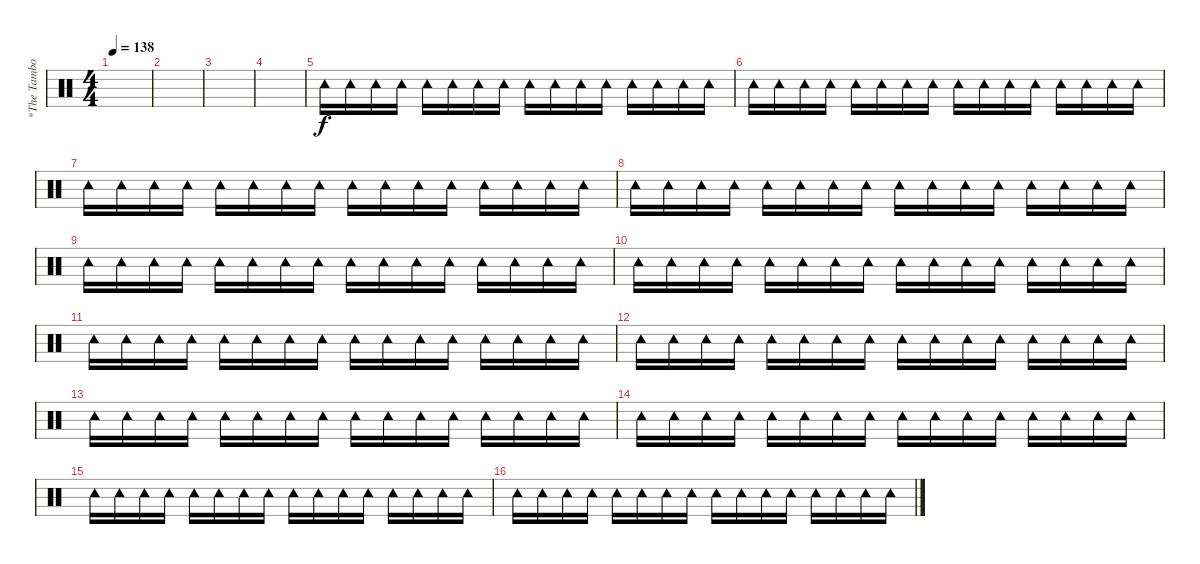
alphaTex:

\track ("*The Tambourine" "*The Tambo") {instrument percussion}
\staff {score}
\articulation defaults
\ts (4 4)
\tempo 138
\clef neutral
\ks c
|
|
|
|
"Tambourine (hit)".16 "Tambourine (hit)".16 "Tambourine (hit)".16 "Tambourine (hit)".16 "Tambourine (hit)".16 "Tambourine (hit)".16 "Tambourine (hit)".16 "Tambourine (hit)".16 "Tambourine (hit)".16 "Tambourine (hit)".16 "Tambourine (hit)".16 "Tambourine (hit)".16 "Tambourine (hit)".16 "Tambourine (hit)".16 "Tambourine (hit)".16 "Tambourine (hit)".16 |
"Tambourine (hit)".16 "Tambourine (hit)".16 "Tambourine (hit)".16 "Tambourine (hit)".16 "Tambourine (hit)".16 "Tambourine (hit)".16 "Tambourine (hit)".16 "Tambourine (hit)".16 "Tambourine (hit)".16 "Tambourine (hit)".16 "Tambourine (hit)".16 "Tambourine (hit)".16 "Tambourine (hit)".16 "Tambourine (hit)".16 "Tambourine (hit)".16 "Tambourine (hit)".16 |
"Tambourine (hit)".16 "Tambourine (hit)".16 "Tambourine (hit)".16 "Tambourine (hit)".16 "Tambourine (hit)".16 "Tambourine (hit)".16 "Tambourine (hit)".16 "Tambourine (hit)".16 "Tambourine (hit)".16 "Tambourine (hit)".16 "Tambourine (hit)".16 "Tambourine (hit)".16 "Tambourine (hit)".16 "Tambourine (hit)".16 "Tambourine (hit)".16 "Tambourine (hit)".16 |
"Tambourine (hit)".16 "Tambourine (hit)".16 "Tambourine (hit)".16 "Tambourine (hit)".16 "Tambourine (hit)".16 "Tambourine (hit)".16 "Tambourine (hit)".16 "Tambourine (hit)".16 "Tambourine (hit)".16 "Tambourine (hit)".16 "Tambourine (hit)".16 "Tambourine (hit)".16 "Tambourine (hit)".16 "Tambourine (hit)".16 "Tambourine (hit)".16 "Tambourine (hit)".16 |
"Tambourine (hit)".16 "Tambourine (hit)".16 "Tambourine (hit)".16 "Tambourine (hit)".16 "Tambourine (hit)".16 "Tambourine (hit)".16 "Tambourine (hit)".16 "Tambourine (hit)".16 "Tambourine (hit)".16 "Tambourine (hit)".16 "Tambourine (hit)".16 "Tambourine (hit)".16 "Tambourine (hit)".16 "Tambourine (hit)".16 "Tambourine (hit)".16 "Tambourine (hit)".16 |
"Tambourine (hit)".16 "Tambourine (hit)".16 "Tambourine (hit)".16 "Tambourine (hit)".16 "Tambourine (hit)".16 "Tambourine (hit)".16 "Tambourine (hit)".16 "Tambourine (hit)".16 "Tambourine (hit)".16 "Tambourine (hit)".16 "Tambourine (hit)".16 "Tambourine (hit)".16 "Tambourine (hit)".16 "Tambourine (hit)".16 "Tambourine (hit)".16 "Tambourine (hit)".16 |
"Tambourine (hit)".16 "Tambourine (hit)".16 "Tambourine (hit)".16 "Tambourine (hit)".16 "Tambourine (hit)".16 "Tambourine (hit)".16 "Tambourine (hit)".16 "Tambourine (hit)".16 "Tambourine (hit)".16 "Tambourine (hit)".16 "Tambourine (hit)".16 "Tambourine (hit)".16 "Tambourine (hit)".16 "Tambourine (hit)".16 "Tambourine (hit)".16 "Tambourine (hit)".16 |
"Tambourine (hit)".16 "Tambourine (hit)".16 "Tambourine (hit)".16 "Tambourine (hit)".16 "Tambourine (hit)".16 "Tambourine (hit)".16 "Tambourine (hit)".16 "Tambourine (hit)".16 "Tambourine (hit)".16 "Tambourine (hit)".16 "Tambourine (hit)".16 "Tambourine (hit)".16 "Tambourine (hit)".16 "Tambourine (hit)".16 "Tambourine (hit)".16 "Tambourine (hit)".16 |
"Tambourine (hit)".16 "Tambourine (hit)".16 "Tambourine (hit)".16 "Tambourine (hit)".16 "Tambourine (hit)".16 "Tambourine (hit)".16 "Tambourine (hit)".16 "Tambourine (hit)".16 "Tambourine (hit)".16 "Tambourine (hit)".16 "Tambourine (hit)".16 "Tambourine (hit)".16 "Tambourine (hit)".16 "Tambourine (hit)".16 "Tambourine (hit)".16 "Tambourine (hit)".16 |
"Tambourine (hit)".16 "Tambourine (hit)".16 "Tambourine (hit)".16 "Tambourine (hit)".16 "Tambourine (hit)".16 "Tambourine (hit)".16 "Tambourine (hit)".16 "Tambourine (hit)".16 "Tambourine (hit)".16 "Tambourine (hit)".16 "Tambourine (hit)".16 "Tambourine (hit)".16 "Tambourine (hit)".16 "Tambourine (hit)".16 "Tambourine (hit)".16 "Tambourine (hit)".16 |
"Tambourine (hit)".16 "Tambourine (hit)".16 "Tambourine (hit)".16 "Tambourine (hit)".16 "Tambourine (hit)".16 "Tambourine (hit)".16 "Tambourine (hit)".16 "Tambourine (hit)".16 "Tambourine (hit)".16 "Tambourine (hit)".16 "Tambourine (hit)".16 "Tambourine (hit)".16 "Tambourine (hit)".16 "Tambourine (hit)".16 "Tambourine (hit)".16 "Tambourine (hit)".16 |
"Tambourine (hit)".16 "Tambourine (hit)".16 "Tambourine (hit)".16 "Tambourine (hit)".16 "Tambourine (hit)".16 "Tambourine (hit)".16 "Tambourine (hit)".16 "Tambourine (hit)".16 "Tambourine (hit)".16 "Tambourine (hit)".16 "Tambourine (hit)".16 "Tambourine (hit)".16 "Tambourine (hit)".16 "Tambourine (hit)".16 "Tambourine (hit)".16 "Tambourine (hit)".16
